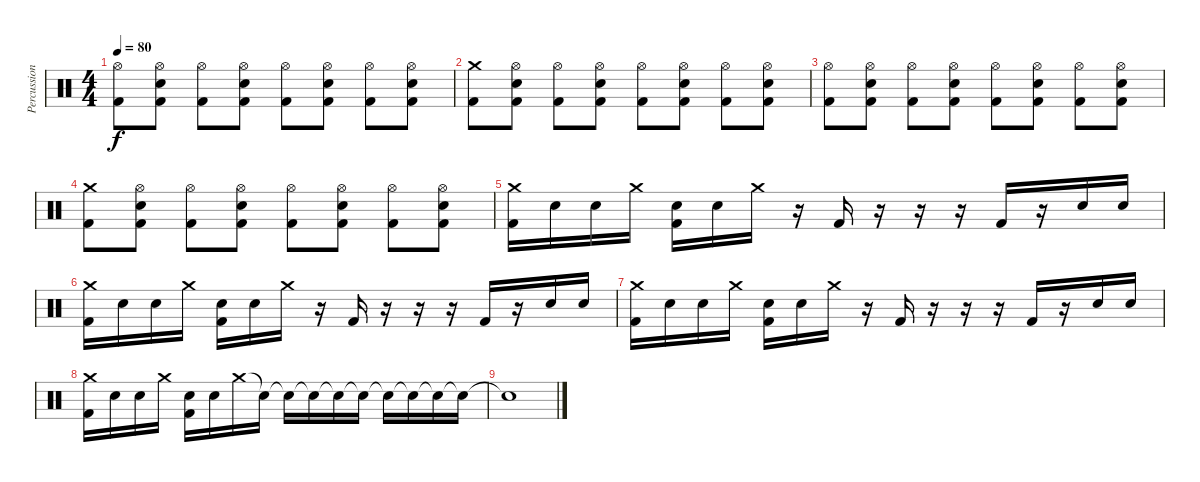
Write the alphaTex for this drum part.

\track ("Percussion" "Percussion") {instrument percussion}
\staff {score}
\articulation defaults
\ts (4 4)
\tempo 80
\clef neutral
\ks c
("Hi-Hat (open)" "Kick (hit) 2").8{dy f} ("Hi-Hat (open)" "Electric Snare (hit)" "Kick (hit) 2").8 ("Hi-Hat (open)" "Kick (hit) 2").8 ("Hi-Hat (open)" "Electric Snare (hit)" "Kick (hit) 2").8 ("Hi-Hat (open)" "Kick (hit) 2").8 ("Hi-Hat (open)" "Electric Snare (hit)" "Kick (hit) 2").8 ("Hi-Hat (open)" "Kick (hit) 2").8 ("Hi-Hat (open)" "Electric Snare (hit)" "Kick (hit) 2").8 |
("Crash medium (hit)" "Kick (hit) 2").8 ("Hi-Hat (open)" "Electric Snare (hit)" "Kick (hit) 2").8 ("Hi-Hat (open)" "Kick (hit) 2").8 ("Hi-Hat (open)" "Electric Snare (hit)" "Kick (hit) 2").8 ("Hi-Hat (open)" "Kick (hit) 2").8 ("Hi-Hat (open)" "Electric Snare (hit)" "Kick (hit) 2").8 ("Hi-Hat (open)" "Kick (hit) 2").8 ("Hi-Hat (open)" "Electric Snare (hit)" "Kick (hit) 2").8 |
("Hi-Hat (open)" "Kick (hit) 2").8 ("Hi-Hat (open)" "Electric Snare (hit)" "Kick (hit) 2").8 ("Hi-Hat (open)" "Kick (hit) 2").8 ("Hi-Hat (open)" "Electric Snare (hit)" "Kick (hit) 2").8 ("Hi-Hat (open)" "Kick (hit) 2").8 ("Hi-Hat (open)" "Electric Snare (hit)" "Kick (hit) 2").8 ("Hi-Hat (open)" "Kick (hit) 2").8 ("Hi-Hat (open)" "Electric Snare (hit)" "Kick (hit) 2").8 |
("Crash medium (hit)" "Kick (hit) 2").8 ("Hi-Hat (open)" "Electric Snare (hit)" "Kick (hit) 2").8 ("Hi-Hat (open)" "Kick (hit) 2").8 ("Hi-Hat (open)" "Electric Snare (hit)" "Kick (hit) 2").8 ("Hi-Hat (open)" "Kick (hit) 2").8 ("Hi-Hat (open)" "Electric Snare (hit)" "Kick (hit) 2").8 ("Hi-Hat (open)" "Kick (hit) 2").8 ("Hi-Hat (open)" "Electric Snare (hit)" "Kick (hit) 2").8 |
("Crash medium (hit)" "Kick (hit) 2").16 "Electric Snare (hit)".16 "Electric Snare (hit)".16 "Crash medium (hit)".16 ("Electric Snare (hit)" "Kick (hit) 2").16 "Electric Snare (hit)".16 "Crash medium (hit)".16 r.16 "Kick (hit) 2".16 r.16 r.16 r.16 "Kick (hit) 2".16 r.16 "Electric Snare (hit)".16 "Electric Snare (hit)".16 |
("Crash medium (hit)" "Kick (hit) 2").16 "Electric Snare (hit)".16 "Electric Snare (hit)".16 "Crash medium (hit)".16 ("Electric Snare (hit)" "Kick (hit) 2").16 "Electric Snare (hit)".16 "Crash medium (hit)".16 r.16 "Kick (hit) 2".16 r.16 r.16 r.16 "Kick (hit) 2".16 r.16 "Electric Snare (hit)".16 "Electric Snare (hit)".16 |
("Crash medium (hit)" "Kick (hit) 2").16 "Electric Snare (hit)".16 "Electric Snare (hit)".16 "Crash medium (hit)".16 ("Electric Snare (hit)" "Kick (hit) 2").16 "Electric Snare (hit)".16 "Crash medium (hit)".16 r.16 "Kick (hit) 2".16 r.16 r.16 r.16 "Kick (hit) 2".16 r.16 "Electric Snare (hit)".16 "Electric Snare (hit)".16 |
("Crash medium (hit)" "Kick (hit) 2").16 "Electric Snare (hit)".16 "Electric Snare (hit)".16 "Crash medium (hit)".16 ("Electric Snare (hit)" "Kick (hit) 2").16 "Electric Snare (hit)".16 "Crash medium (hit)".16 "Snare (hit)"{t}.16 "Snare (hit)"{t}.16 "Snare (hit)"{t}.16 "Snare (hit)"{t}.16 "Snare (hit)"{t}.16 "Snare (hit)"{t}.16 "Snare (hit)"{t}.16 "Snare (hit)"{t}.16 "Snare (hit)"{t}.16 |
"Snare (hit)"{t}.1
